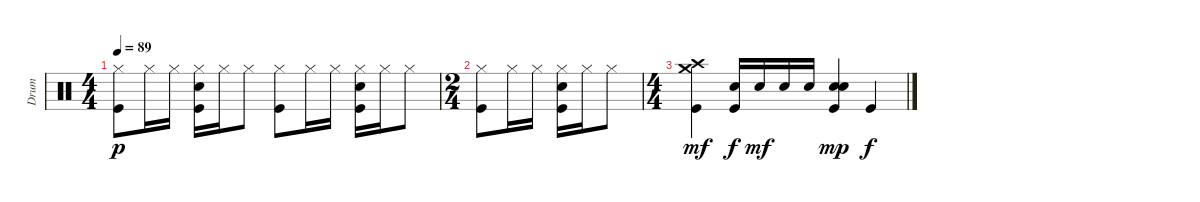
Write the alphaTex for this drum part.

\track ("Drum" "Drum") {instrument percussion}
\staff {score}
\articulation defaults
\ts (4 4)
\tempo 89
\clef neutral
\ks c
("Hi-Hat (closed)" "Kick (hit)").8{dy p} "Hi-Hat (closed)".16 "Hi-Hat (closed)".16 ("Hi-Hat (closed)" "Snare (hit) 2" "Kick (hit)").16 "Hi-Hat (closed)".16 "Hi-Hat (closed)".8 ("Hi-Hat (closed)" "Kick (hit)").8 "Hi-Hat (closed)".16 "Hi-Hat (closed)".16 ("Hi-Hat (closed)" "Snare (hit) 2" "Kick (hit)").16 "Hi-Hat (closed)".16 "Hi-Hat (closed)".8 |
\ts (2 4)
("Hi-Hat (closed)" "Kick (hit)").8 "Hi-Hat (closed)".16 "Hi-Hat (closed)".16 ("Hi-Hat (closed)" "Snare (hit) 2" "Kick (hit)").16 "Hi-Hat (closed)".16 "Hi-Hat (closed)".8 |
\ts (4 4)
("Crash high (hit)" "Crash medium (hit)" "Kick (hit)").4{dy mf} ("Snare (hit) 2" "Kick (hit)").16{dy f} "Snare (hit) 2".16{dy mf} "Snare (hit) 2".16 "Snare (hit) 2".16 ("Snare (hit) 2" "Snare (hit) 2" "Kick (hit)").4{bd 30 dy mp} "Kick (hit)".4{dy f}
